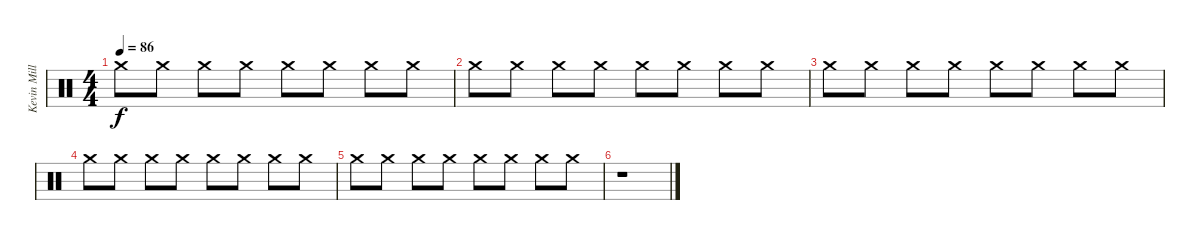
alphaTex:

\track ("Kevin Miller (Drums)" "Kevin Mill") {instrument percussion}
\staff {score}
\articulation defaults
\ts (4 4)
\tempo 86
\clef neutral
\ks c "Crash medium (hit)".8{dy f} "Crash medium (hit)".8 "Crash medium (hit)".8 "Crash medium (hit)".8 "Crash medium (hit)".8 "Crash medium (hit)".8 "Crash medium (hit)".8 "Crash medium (hit)".8
|
"Crash medium (hit)".8 "Crash medium (hit)".8 "Crash medium (hit)".8 "Crash medium (hit)".8 "Crash medium (hit)".8 "Crash medium (hit)".8 "Crash medium (hit)".8 "Crash medium (hit)".8 |
"Crash medium (hit)".8 "Crash medium (hit)".8 "Crash medium (hit)".8 "Crash medium (hit)".8 "Crash medium (hit)".8 "Crash medium (hit)".8 "Crash medium (hit)".8 "Crash medium (hit)".8 |
"Crash medium (hit)".8 "Crash medium (hit)".8 "Crash medium (hit)".8 "Crash medium (hit)".8 "Crash medium (hit)".8 "Crash medium (hit)".8 "Crash medium (hit)".8 "Crash medium (hit)".8 |
"Crash medium (hit)".8 "Crash medium (hit)".8 "Crash medium (hit)".8 "Crash medium (hit)".8 "Crash medium (hit)".8 "Crash medium (hit)".8 "Crash medium (hit)".8 "Crash medium (hit)".8 |
r.1
